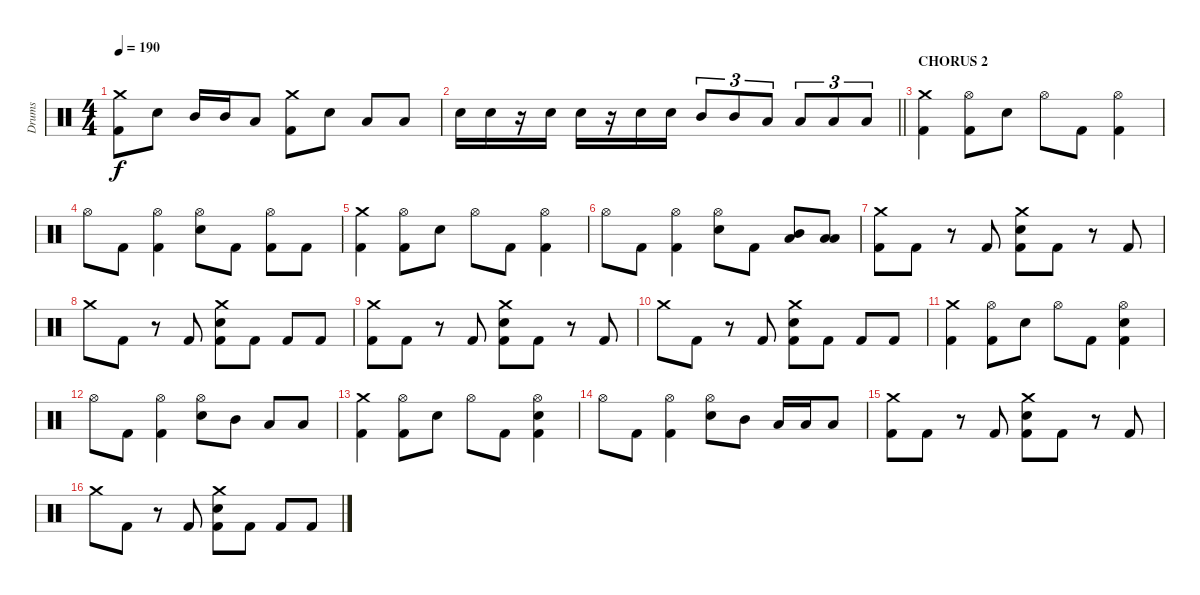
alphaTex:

\track ("Drums" "Drums") {instrument percussion}
\staff {score}
\articulation defaults
\ts (4 4)
\tempo 190
\clef neutral
\ks c
("Crash medium (hit)" "Kick (hit) 2").8{dy f} "Electric Snare (hit)".8 "Mid Tom (hit)".16 "Mid Tom (hit)".16 "Low Tom (hit)".8 ("Crash medium (hit)" "Kick (hit) 2").8 "Electric Snare (hit)".8 "Low Tom (hit)".8 "Low Floor Tom (hit)".8 |
\barLineRight lightlight "Electric Snare (hit)".16 "Electric Snare (hit)".16
r.16 "Electric Snare (hit)".16 "Electric Snare (hit)".16 r.16 "Electric Snare (hit)".16 "Electric Snare (hit)".16 "Mid Tom (hit)".8{tu (3 2)} "Mid Tom (hit)".8{tu (3 2)} "Low Tom (hit)".8{tu (3 2)} "Low Tom (hit)".8{tu (3 2)} "Low Floor Tom (hit)".8{tu (3 2)} "Low Floor Tom (hit)".8{tu (3 2)} |
\section ("" "CHORUS 2")
("Crash medium (hit)" "Kick (hit) 2").4 ("Hi-Hat (open)" "Kick (hit) 2").8 "Electric Snare (hit)".8 "Hi-Hat (open)".8 "Kick (hit) 2".8 ("Hi-Hat (open)" "Kick (hit) 2").4 |
"Hi-Hat (open)".8 "Kick (hit) 2".8 ("Hi-Hat (open)" "Kick (hit) 2").4 ("Hi-Hat (open)" "Electric Snare (hit)").8 "Kick (hit) 2".8 ("Hi-Hat (open)" "Kick (hit) 2").8 "Kick (hit) 2".8 |
("Crash medium (hit)" "Kick (hit) 2").4 ("Hi-Hat (open)" "Kick (hit) 2").8 "Electric Snare (hit)".8 "Hi-Hat (open)".8 "Kick (hit) 2".8 ("Hi-Hat (open)" "Kick (hit) 2").4 |
"Hi-Hat (open)".8 "Kick (hit) 2".8 ("Hi-Hat (open)" "Kick (hit) 2").4 ("Hi-Hat (open)" "Electric Snare (hit)").8 "Kick (hit) 2".8 ("Mid Tom (hit)" "Low Tom (hit)").8 ("Low Tom (hit)" "Low Floor Tom (hit)").8 |
("Crash medium (hit)" "Kick (hit) 2").8 "Kick (hit) 2".8 r.8 "Kick (hit) 2".8 ("Crash medium (hit)" "Electric Snare (hit)" "Kick (hit) 2").8 "Kick (hit) 2".8 r.8 "Kick (hit) 2".8 |
"Crash medium (hit)".8 "Kick (hit) 2".8 r.8 "Kick (hit) 2".8 ("Crash medium (hit)" "Electric Snare (hit)" "Kick (hit) 2").8 "Kick (hit) 2".8 "Kick (hit) 2".8 "Kick (hit) 2".8 |
("Crash medium (hit)" "Kick (hit) 2").8 "Kick (hit) 2".8 r.8 "Kick (hit) 2".8 ("Crash medium (hit)" "Electric Snare (hit)" "Kick (hit) 2").8 "Kick (hit) 2".8 r.8 "Kick (hit) 2".8 |
"Crash medium (hit)".8 "Kick (hit) 2".8 r.8 "Kick (hit) 2".8 ("Crash medium (hit)" "Electric Snare (hit)" "Kick (hit) 2").8 "Kick (hit) 2".8 "Kick (hit) 2".8 "Kick (hit) 2".8 |
("Crash medium (hit)" "Kick (hit) 2").4 ("Hi-Hat (open)" "Kick (hit) 2").8 "Electric Snare (hit)".8 "Hi-Hat (open)".8 "Kick (hit) 2".8 ("Hi-Hat (open)" "Electric Snare (hit)" "Kick (hit) 2").4 |
"Hi-Hat (open)".8 "Kick (hit) 2".8 ("Hi-Hat (open)" "Kick (hit) 2").4 ("Hi-Hat (open)" "Electric Snare (hit)").8 "Mid Tom (hit)".8 "Low Tom (hit)".8 "Low Floor Tom (hit)".8 |
("Crash medium (hit)" "Kick (hit) 2").4 ("Hi-Hat (open)" "Kick (hit) 2").8 "Electric Snare (hit)".8 "Hi-Hat (open)".8 "Kick (hit) 2".8 ("Hi-Hat (open)" "Electric Snare (hit)" "Kick (hit) 2").4 |
"Hi-Hat (open)".8 "Kick (hit) 2".8 ("Hi-Hat (open)" "Kick (hit) 2").4 ("Hi-Hat (open)" "Electric Snare (hit)").8 "Mid Tom (hit)".8 "Low Tom (hit)".16 "Low Tom (hit)".16 "Low Floor Tom (hit)".8 |
("Crash medium (hit)" "Kick (hit) 2").8 "Kick (hit) 2".8 r.8 "Kick (hit) 2".8 ("Crash medium (hit)" "Electric Snare (hit)" "Kick (hit) 2").8 "Kick (hit) 2".8 r.8 "Kick (hit) 2".8 |
"Crash medium (hit)".8 "Kick (hit) 2".8 r.8 "Kick (hit) 2".8 ("Crash medium (hit)" "Electric Snare (hit)" "Kick (hit) 2").8 "Kick (hit) 2".8 "Kick (hit) 2".8 "Kick (hit) 2".8
